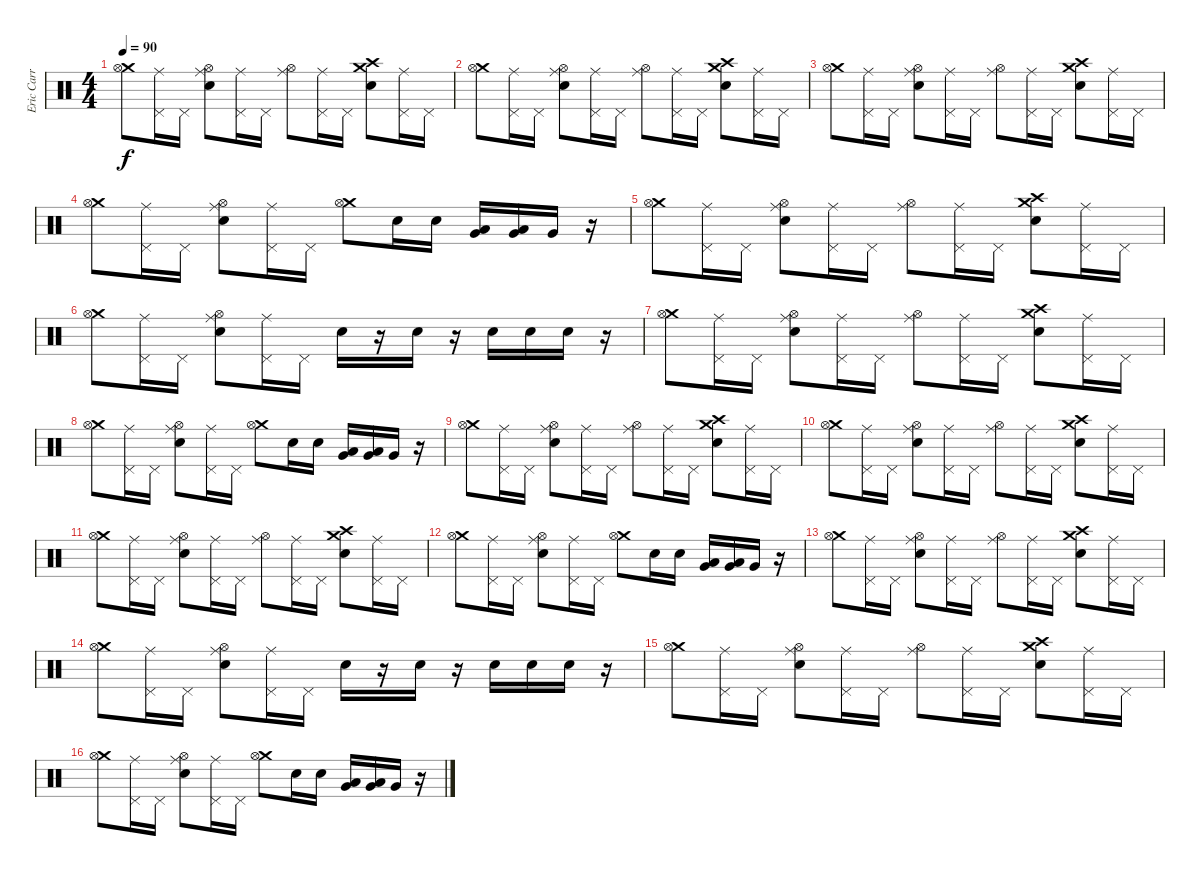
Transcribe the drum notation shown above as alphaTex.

\track ("Eric Carr" "Eric Carr") {instrument percussion}
\staff {score}
\articulation defaults
\ts (4 4)
\tempo 90
\clef neutral
\ks c
("Crash medium (hit)" "Hi-Hat (open)").8{dy f} ("Ride (middle)" "Pedal Hi-Hat (hit)").16 "Pedal Hi-Hat (hit)".16 ("Ride (middle)" "Hi-Hat (open)" "Electric Snare (hit)").8 ("Ride (middle)" "Pedal Hi-Hat (hit)").16 "Pedal Hi-Hat (hit)".16 ("Ride (middle)" "Hi-Hat (open)").8 ("Ride (middle)" "Pedal Hi-Hat (hit)").16 "Pedal Hi-Hat (hit)".16 ("Crash medium (hit)" "Crash high (hit)" "Electric Snare (hit)").8 ("Ride (middle)" "Pedal Hi-Hat (hit)").16 "Pedal Hi-Hat (hit)".16 |
("Crash medium (hit)" "Hi-Hat (open)").8 ("Ride (middle)" "Pedal Hi-Hat (hit)").16 "Pedal Hi-Hat (hit)".16 ("Ride (middle)" "Hi-Hat (open)" "Electric Snare (hit)").8 ("Ride (middle)" "Pedal Hi-Hat (hit)").16 "Pedal Hi-Hat (hit)".16 ("Ride (middle)" "Hi-Hat (open)").8 ("Ride (middle)" "Pedal Hi-Hat (hit)").16 "Pedal Hi-Hat (hit)".16 ("Crash medium (hit)" "Crash high (hit)" "Electric Snare (hit)").8 ("Ride (middle)" "Pedal Hi-Hat (hit)").16 "Pedal Hi-Hat (hit)".16 |
("Crash medium (hit)" "Hi-Hat (open)").8 ("Ride (middle)" "Pedal Hi-Hat (hit)").16 "Pedal Hi-Hat (hit)".16 ("Ride (middle)" "Hi-Hat (open)" "Electric Snare (hit)").8 ("Ride (middle)" "Pedal Hi-Hat (hit)").16 "Pedal Hi-Hat (hit)".16 ("Ride (middle)" "Hi-Hat (open)").8 ("Ride (middle)" "Pedal Hi-Hat (hit)").16 "Pedal Hi-Hat (hit)".16 ("Crash medium (hit)" "Crash high (hit)" "Electric Snare (hit)").8 ("Ride (middle)" "Pedal Hi-Hat (hit)").16 "Pedal Hi-Hat (hit)".16 |
("Crash medium (hit)" "Hi-Hat (open)").8 ("Ride (middle)" "Pedal Hi-Hat (hit)").16 "Pedal Hi-Hat (hit)".16 ("Ride (middle)" "Hi-Hat (open)" "Electric Snare (hit)").8 ("Ride (middle)" "Pedal Hi-Hat (hit)").16 "Pedal Hi-Hat (hit)".16 ("Crash medium (hit)" "Hi-Hat (open)").8 "Electric Snare (hit)".16 "Electric Snare (hit)".16 ("Low Tom (hit)" "Very Low Tom (hit)").16 ("Low Tom (hit)" "Very Low Tom (hit)").16 "Very Low Tom (hit)".16 r.16 |
("Crash medium (hit)" "Hi-Hat (open)").8 ("Ride (middle)" "Pedal Hi-Hat (hit)").16 "Pedal Hi-Hat (hit)".16 ("Ride (middle)" "Hi-Hat (open)" "Electric Snare (hit)").8 ("Ride (middle)" "Pedal Hi-Hat (hit)").16 "Pedal Hi-Hat (hit)".16 ("Ride (middle)" "Hi-Hat (open)").8 ("Ride (middle)" "Pedal Hi-Hat (hit)").16 "Pedal Hi-Hat (hit)".16 ("Crash medium (hit)" "Crash high (hit)" "Electric Snare (hit)").8 ("Ride (middle)" "Pedal Hi-Hat (hit)").16 "Pedal Hi-Hat (hit)".16 |
("Crash medium (hit)" "Hi-Hat (open)").8 ("Ride (middle)" "Pedal Hi-Hat (hit)").16 "Pedal Hi-Hat (hit)".16 ("Ride (middle)" "Hi-Hat (open)" "Electric Snare (hit)").8 ("Ride (middle)" "Pedal Hi-Hat (hit)").16 "Pedal Hi-Hat (hit)".16 "Electric Snare (hit)".16 r.16 "Electric Snare (hit)".16 r.16 "Electric Snare (hit)".16 "Electric Snare (hit)".16 "Electric Snare (hit)".16 r.16 |
("Crash medium (hit)" "Hi-Hat (open)").8 ("Ride (middle)" "Pedal Hi-Hat (hit)").16 "Pedal Hi-Hat (hit)".16 ("Ride (middle)" "Hi-Hat (open)" "Electric Snare (hit)").8 ("Ride (middle)" "Pedal Hi-Hat (hit)").16 "Pedal Hi-Hat (hit)".16 ("Ride (middle)" "Hi-Hat (open)").8 ("Ride (middle)" "Pedal Hi-Hat (hit)").16 "Pedal Hi-Hat (hit)".16 ("Crash medium (hit)" "Crash high (hit)" "Electric Snare (hit)").8 ("Ride (middle)" "Pedal Hi-Hat (hit)").16 "Pedal Hi-Hat (hit)".16 |
("Crash medium (hit)" "Hi-Hat (open)").8 ("Ride (middle)" "Pedal Hi-Hat (hit)").16 "Pedal Hi-Hat (hit)".16 ("Ride (middle)" "Hi-Hat (open)" "Electric Snare (hit)").8 ("Ride (middle)" "Pedal Hi-Hat (hit)").16 "Pedal Hi-Hat (hit)".16 ("Crash medium (hit)" "Hi-Hat (open)").8 "Electric Snare (hit)".16 "Electric Snare (hit)".16 ("Low Tom (hit)" "Very Low Tom (hit)").16 ("Low Tom (hit)" "Very Low Tom (hit)").16 "Very Low Tom (hit)".16 r.16 |
("Crash medium (hit)" "Hi-Hat (open)").8 ("Ride (middle)" "Pedal Hi-Hat (hit)").16 "Pedal Hi-Hat (hit)".16 ("Ride (middle)" "Hi-Hat (open)" "Electric Snare (hit)").8 ("Ride (middle)" "Pedal Hi-Hat (hit)").16 "Pedal Hi-Hat (hit)".16 ("Ride (middle)" "Hi-Hat (open)").8 ("Ride (middle)" "Pedal Hi-Hat (hit)").16 "Pedal Hi-Hat (hit)".16 ("Crash medium (hit)" "Crash high (hit)" "Electric Snare (hit)").8 ("Ride (middle)" "Pedal Hi-Hat (hit)").16 "Pedal Hi-Hat (hit)".16 |
("Crash medium (hit)" "Hi-Hat (open)").8 ("Ride (middle)" "Pedal Hi-Hat (hit)").16 "Pedal Hi-Hat (hit)".16 ("Ride (middle)" "Hi-Hat (open)" "Electric Snare (hit)").8 ("Ride (middle)" "Pedal Hi-Hat (hit)").16 "Pedal Hi-Hat (hit)".16 ("Ride (middle)" "Hi-Hat (open)").8 ("Ride (middle)" "Pedal Hi-Hat (hit)").16 "Pedal Hi-Hat (hit)".16 ("Crash medium (hit)" "Crash high (hit)" "Electric Snare (hit)").8 ("Ride (middle)" "Pedal Hi-Hat (hit)").16 "Pedal Hi-Hat (hit)".16 |
("Crash medium (hit)" "Hi-Hat (open)").8 ("Ride (middle)" "Pedal Hi-Hat (hit)").16 "Pedal Hi-Hat (hit)".16 ("Ride (middle)" "Hi-Hat (open)" "Electric Snare (hit)").8 ("Ride (middle)" "Pedal Hi-Hat (hit)").16 "Pedal Hi-Hat (hit)".16 ("Ride (middle)" "Hi-Hat (open)").8 ("Ride (middle)" "Pedal Hi-Hat (hit)").16 "Pedal Hi-Hat (hit)".16 ("Crash medium (hit)" "Crash high (hit)" "Electric Snare (hit)").8 ("Ride (middle)" "Pedal Hi-Hat (hit)").16 "Pedal Hi-Hat (hit)".16 |
("Crash medium (hit)" "Hi-Hat (open)").8 ("Ride (middle)" "Pedal Hi-Hat (hit)").16 "Pedal Hi-Hat (hit)".16 ("Ride (middle)" "Hi-Hat (open)" "Electric Snare (hit)").8 ("Ride (middle)" "Pedal Hi-Hat (hit)").16 "Pedal Hi-Hat (hit)".16 ("Crash medium (hit)" "Hi-Hat (open)").8 "Electric Snare (hit)".16 "Electric Snare (hit)".16 ("Low Tom (hit)" "Very Low Tom (hit)").16 ("Low Tom (hit)" "Very Low Tom (hit)").16 "Very Low Tom (hit)".16 r.16 |
("Crash medium (hit)" "Hi-Hat (open)").8 ("Ride (middle)" "Pedal Hi-Hat (hit)").16 "Pedal Hi-Hat (hit)".16 ("Ride (middle)" "Hi-Hat (open)" "Electric Snare (hit)").8 ("Ride (middle)" "Pedal Hi-Hat (hit)").16 "Pedal Hi-Hat (hit)".16 ("Ride (middle)" "Hi-Hat (open)").8 ("Ride (middle)" "Pedal Hi-Hat (hit)").16 "Pedal Hi-Hat (hit)".16 ("Crash medium (hit)" "Crash high (hit)" "Electric Snare (hit)").8 ("Ride (middle)" "Pedal Hi-Hat (hit)").16 "Pedal Hi-Hat (hit)".16 |
("Crash medium (hit)" "Hi-Hat (open)").8 ("Ride (middle)" "Pedal Hi-Hat (hit)").16 "Pedal Hi-Hat (hit)".16 ("Ride (middle)" "Hi-Hat (open)" "Electric Snare (hit)").8 ("Ride (middle)" "Pedal Hi-Hat (hit)").16 "Pedal Hi-Hat (hit)".16 "Electric Snare (hit)".16 r.16 "Electric Snare (hit)".16 r.16 "Electric Snare (hit)".16 "Electric Snare (hit)".16 "Electric Snare (hit)".16 r.16 |
("Crash medium (hit)" "Hi-Hat (open)").8 ("Ride (middle)" "Pedal Hi-Hat (hit)").16 "Pedal Hi-Hat (hit)".16 ("Ride (middle)" "Hi-Hat (open)" "Electric Snare (hit)").8 ("Ride (middle)" "Pedal Hi-Hat (hit)").16 "Pedal Hi-Hat (hit)".16 ("Ride (middle)" "Hi-Hat (open)").8 ("Ride (middle)" "Pedal Hi-Hat (hit)").16 "Pedal Hi-Hat (hit)".16 ("Crash medium (hit)" "Crash high (hit)" "Electric Snare (hit)").8 ("Ride (middle)" "Pedal Hi-Hat (hit)").16 "Pedal Hi-Hat (hit)".16 |
("Crash medium (hit)" "Hi-Hat (open)").8 ("Ride (middle)" "Pedal Hi-Hat (hit)").16 "Pedal Hi-Hat (hit)".16 ("Ride (middle)" "Hi-Hat (open)" "Electric Snare (hit)").8 ("Ride (middle)" "Pedal Hi-Hat (hit)").16 "Pedal Hi-Hat (hit)".16 ("Crash medium (hit)" "Hi-Hat (open)").8 "Electric Snare (hit)".16 "Electric Snare (hit)".16 ("Low Tom (hit)" "Very Low Tom (hit)").16 ("Low Tom (hit)" "Very Low Tom (hit)").16 "Very Low Tom (hit)".16 r.16
